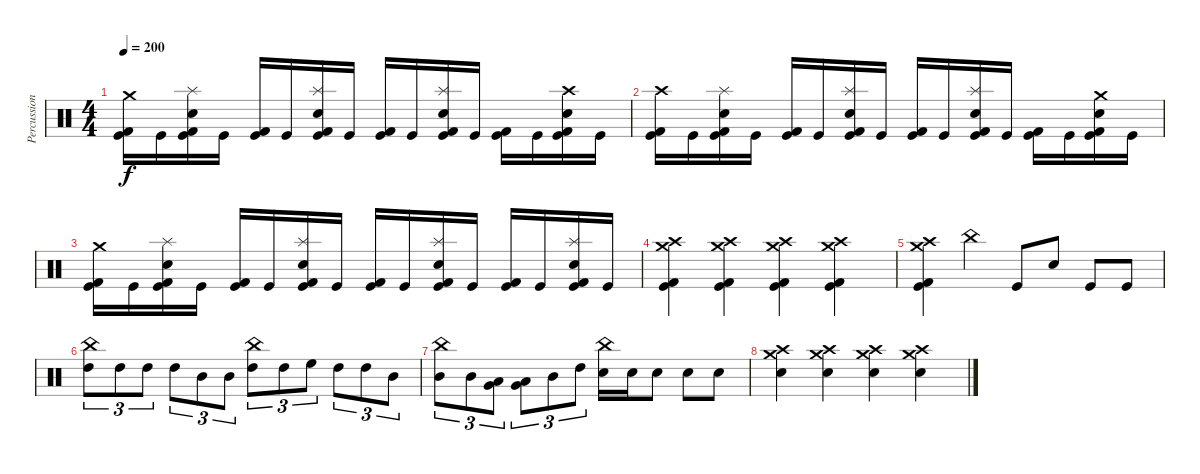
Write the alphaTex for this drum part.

\track ("Percussion" "Percussion") {instrument percussion}
\staff {score}
\articulation defaults
\ts (4 4)
\tempo 200
\clef neutral
\ks c
("Crash medium (hit)" "Kick (hit) 2" "Kick (hit)").16{dy f} "Kick (hit)".16 ("Splash (hit)" "Snare (hit) 2" "Kick (hit) 2" "Kick (hit)").16 "Kick (hit)".16 ("Kick (hit) 2" "Kick (hit)").16 "Kick (hit)".16 ("Splash (hit)" "Snare (hit) 2" "Kick (hit) 2" "Kick (hit)").16 "Kick (hit)".16 ("Kick (hit) 2" "Kick (hit)").16 "Kick (hit)".16 ("Splash (hit)" "Snare (hit) 2" "Kick (hit) 2" "Kick (hit)").16 "Kick (hit)".16 ("Kick (hit) 2" "Kick (hit)").16 "Kick (hit)".16 ("Crash high (hit)" "Snare (hit) 2" "Kick (hit) 2" "Kick (hit)").16 "Kick (hit)".16 |
("Crash high (hit)" "Kick (hit) 2" "Kick (hit)").16 "Kick (hit)".16 ("Splash (hit)" "Snare (hit) 2" "Kick (hit) 2" "Kick (hit)").16 "Kick (hit)".16 ("Kick (hit) 2" "Kick (hit)").16 "Kick (hit)".16 ("Splash (hit)" "Snare (hit) 2" "Kick (hit) 2" "Kick (hit)").16 "Kick (hit)".16 ("Kick (hit) 2" "Kick (hit)").16 "Kick (hit)".16 ("Splash (hit)" "Snare (hit) 2" "Kick (hit) 2" "Kick (hit)").16 "Kick (hit)".16 ("Kick (hit) 2" "Kick (hit)").16 "Kick (hit)".16 ("Crash medium (hit)" "Snare (hit) 2" "Kick (hit) 2" "Kick (hit)").16 "Kick (hit)".16 |
("Crash medium (hit)" "Kick (hit) 2" "Kick (hit)").16 "Kick (hit)".16 ("Splash (hit)" "Snare (hit) 2" "Kick (hit) 2" "Kick (hit)").16 "Kick (hit)".16 ("Kick (hit) 2" "Kick (hit)").16 "Kick (hit)".16 ("Splash (hit)" "Snare (hit) 2" "Kick (hit) 2" "Kick (hit)").16 "Kick (hit)".16 ("Kick (hit) 2" "Kick (hit)").16 "Kick (hit)".16 ("Splash (hit)" "Snare (hit) 2" "Kick (hit) 2" "Kick (hit)").16 "Kick (hit)".16 ("Kick (hit) 2" "Kick (hit)").16 "Kick (hit)".16 ("Splash (hit)" "Snare (hit) 2" "Kick (hit) 2" "Kick (hit)").16 "Kick (hit)".16 |
("Crash high (hit)" "Crash medium (hit)" "Kick (hit) 2" "Kick (hit)").4 ("Crash high (hit)" "Crash medium (hit)" "Kick (hit) 2" "Kick (hit)").4 ("Crash high (hit)" "Crash medium (hit)" "Kick (hit) 2" "Kick (hit)").4 ("Crash high (hit)" "Crash medium (hit)" "Kick (hit) 2" "Kick (hit)").4 |
("Crash high (hit)" "Crash medium (hit)" "Kick (hit) 2" "Kick (hit)").4 "China (hit)".4 "Kick (hit)".8 "Snare (hit) 2".8 "Kick (hit)".8 "Kick (hit)".8 |
("China (hit)" "High Tom (hit)").8{tu (3 2)} "High Tom (hit)".8{tu (3 2)} "High Tom (hit)".8{tu (3 2)} "High Tom (hit)".8{tu (3 2)} "Mid Tom (hit)".8{tu (3 2)} "Mid Tom (hit)".8{tu (3 2)} ("China (hit)" "High Tom (hit)").8{tu (3 2)} "High Tom (hit)".8{tu (3 2)} "High Floor Tom (hit)".8{tu (3 2)} "High Tom (hit)".8{tu (3 2)} "High Tom (hit)".8{tu (3 2)} "Mid Tom (hit)".8{tu (3 2)} |
("China (hit)" "Mid Tom (hit)").8{tu (3 2)} "Mid Tom (hit)".8{tu (3 2)} ("Very Low Tom (hit)" "Low Floor Tom (hit)").8{tu (3 2)} ("Very Low Tom (hit)" "Low Floor Tom (hit)").8{tu (3 2)} "Mid Tom (hit)".8{tu (3 2)} "High Tom (hit)".8{tu (3 2)} ("China (hit)" "Snare (hit) 2").16 "Snare (hit) 2".16 "Snare (hit) 2".8 "Snare (hit) 2".8 "Snare (hit) 2".8 |
("Crash high (hit)" "Crash medium (hit)" "Snare (hit) 2").4 ("Crash high (hit)" "Crash medium (hit)" "Snare (hit) 2").4 ("Crash high (hit)" "Crash medium (hit)" "Snare (hit) 2").4 ("Crash high (hit)" "Crash medium (hit)" "Snare (hit) 2").4
